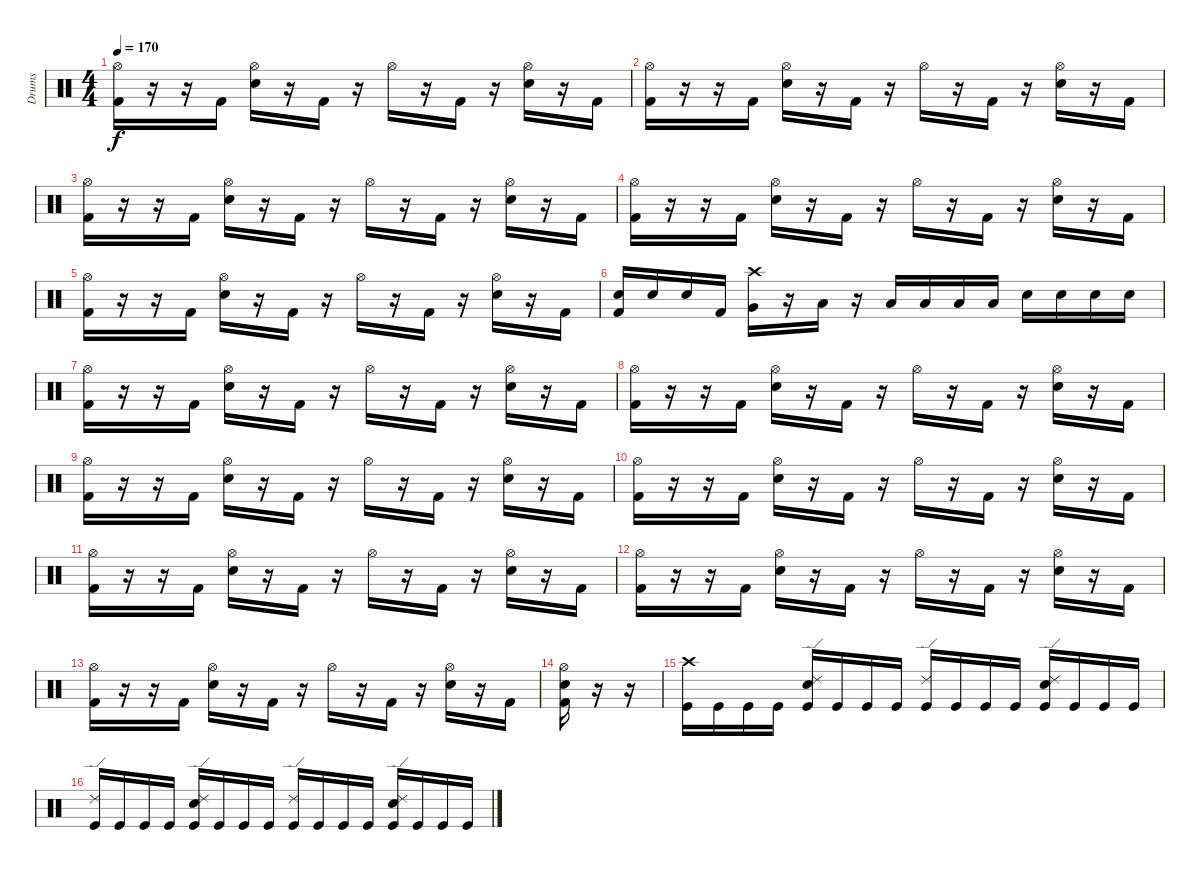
\track ("Drums" "Drums") {instrument percussion}
\staff {score}
\articulation defaults
\ts (4 4)
\tempo 170
\clef neutral
\ks c
("Hi-Hat (open)" "Kick (hit) 2").16{dy f} r.16 r.16 "Kick (hit) 2".16 ("Hi-Hat (open)" "Electric Snare (hit)").16 r.16 "Kick (hit) 2".16 r.16 "Hi-Hat (open)".16 r.16 "Kick (hit) 2".16 r.16 ("Hi-Hat (open)" "Electric Snare (hit)").16 r.16 "Kick (hit) 2".16 |
("Hi-Hat (open)" "Kick (hit) 2").16 r.16 r.16 "Kick (hit) 2".16 ("Hi-Hat (open)" "Electric Snare (hit)").16 r.16 "Kick (hit) 2".16 r.16 "Hi-Hat (open)".16 r.16 "Kick (hit) 2".16 r.16 ("Hi-Hat (open)" "Electric Snare (hit)").16 r.16 "Kick (hit) 2".16 |
("Hi-Hat (open)" "Kick (hit) 2").16 r.16 r.16 "Kick (hit) 2".16 ("Hi-Hat (open)" "Electric Snare (hit)").16 r.16 "Kick (hit) 2".16 r.16 "Hi-Hat (open)".16 r.16 "Kick (hit) 2".16 r.16 ("Hi-Hat (open)" "Electric Snare (hit)").16 r.16 "Kick (hit) 2".16 |
("Hi-Hat (open)" "Kick (hit) 2").16 r.16 r.16 "Kick (hit) 2".16 ("Hi-Hat (open)" "Electric Snare (hit)").16 r.16 "Kick (hit) 2".16 r.16 "Hi-Hat (open)".16 r.16 "Kick (hit) 2".16 r.16 ("Hi-Hat (open)" "Electric Snare (hit)").16 r.16 "Kick (hit) 2".16 |
("Hi-Hat (open)" "Kick (hit) 2").16 r.16 r.16 "Kick (hit) 2".16 ("Hi-Hat (open)" "Electric Snare (hit)").16 r.16 "Kick (hit) 2".16 r.16 "Hi-Hat (open)".16 r.16 "Kick (hit) 2".16 r.16 ("Hi-Hat (open)" "Electric Snare (hit)").16 r.16 "Kick (hit) 2".16 |
("Electric Snare (hit)" "Kick (hit) 2").16 "Electric Snare (hit)".16 "Electric Snare (hit)".16 "Kick (hit) 2".16 ("Crash high (hit)" "Very Low Tom (hit)").16 r.16 "Low Tom (hit)".16 r.16 "Low Tom (hit)".16 "Low Tom (hit)".16 "Low Tom (hit)".16 "Low Tom (hit)".16 "Electric Snare (hit)".16 "Electric Snare (hit)".16 "Electric Snare (hit)".16 "Electric Snare (hit)".16 |
("Hi-Hat (open)" "Kick (hit) 2").16 r.16 r.16 "Kick (hit) 2".16 ("Hi-Hat (open)" "Electric Snare (hit)").16 r.16 "Kick (hit) 2".16 r.16 "Hi-Hat (open)".16 r.16 "Kick (hit) 2".16 r.16 ("Hi-Hat (open)" "Electric Snare (hit)").16 r.16 "Kick (hit) 2".16 |
("Hi-Hat (open)" "Kick (hit) 2").16 r.16 r.16 "Kick (hit) 2".16 ("Hi-Hat (open)" "Electric Snare (hit)").16 r.16 "Kick (hit) 2".16 r.16 "Hi-Hat (open)".16 r.16 "Kick (hit) 2".16 r.16 ("Hi-Hat (open)" "Electric Snare (hit)").16 r.16 "Kick (hit) 2".16 |
("Hi-Hat (open)" "Kick (hit) 2").16 r.16 r.16 "Kick (hit) 2".16 ("Hi-Hat (open)" "Electric Snare (hit)").16 r.16 "Kick (hit) 2".16 r.16 "Hi-Hat (open)".16 r.16 "Kick (hit) 2".16 r.16 ("Hi-Hat (open)" "Electric Snare (hit)").16 r.16 "Kick (hit) 2".16 |
("Hi-Hat (open)" "Kick (hit) 2").16 r.16 r.16 "Kick (hit) 2".16 ("Hi-Hat (open)" "Electric Snare (hit)").16 r.16 "Kick (hit) 2".16 r.16 "Hi-Hat (open)".16 r.16 "Kick (hit) 2".16 r.16 ("Hi-Hat (open)" "Electric Snare (hit)").16 r.16 "Kick (hit) 2".16 |
("Hi-Hat (open)" "Kick (hit) 2").16 r.16 r.16 "Kick (hit) 2".16 ("Hi-Hat (open)" "Electric Snare (hit)").16 r.16 "Kick (hit) 2".16 r.16 "Hi-Hat (open)".16 r.16 "Kick (hit) 2".16 r.16 ("Hi-Hat (open)" "Electric Snare (hit)").16 r.16 "Kick (hit) 2".16 |
("Hi-Hat (open)" "Kick (hit) 2").16 r.16 r.16 "Kick (hit) 2".16 ("Hi-Hat (open)" "Electric Snare (hit)").16 r.16 "Kick (hit) 2".16 r.16 "Hi-Hat (open)".16 r.16 "Kick (hit) 2".16 r.16 ("Hi-Hat (open)" "Electric Snare (hit)").16 r.16 "Kick (hit) 2".16 |
("Hi-Hat (open)" "Kick (hit) 2").16 r.16 r.16 "Kick (hit) 2".16 ("Hi-Hat (open)" "Electric Snare (hit)").16 r.16 "Kick (hit) 2".16 r.16 "Hi-Hat (open)".16 r.16 "Kick (hit) 2".16 r.16 ("Hi-Hat (open)" "Electric Snare (hit)").16 r.16 "Kick (hit) 2".16 |
("Hi-Hat (open)" "Electric Snare (hit)" "Kick (hit) 2").16 r.16 r.16 |
("Crash high (hit)" "Kick (hit)").16 "Kick (hit)".16 "Kick (hit)".16 "Kick (hit)".16 ("Ride (edge) 2" "Electric Snare (hit)" "Kick (hit)").16 "Kick (hit)".16 "Kick (hit)".16 "Kick (hit)".16 ("Ride (edge) 2" "Kick (hit)").16 "Kick (hit)".16 "Kick (hit)".16 "Kick (hit)".16 ("Ride (edge) 2" "Electric Snare (hit)" "Kick (hit)").16 "Kick (hit)".16 "Kick (hit)".16 "Kick (hit)".16 |
("Ride (edge) 2" "Kick (hit)").16 "Kick (hit)".16 "Kick (hit)".16 "Kick (hit)".16 ("Ride (edge) 2" "Electric Snare (hit)" "Kick (hit)").16 "Kick (hit)".16 "Kick (hit)".16 "Kick (hit)".16 ("Ride (edge) 2" "Kick (hit)").16 "Kick (hit)".16 "Kick (hit)".16 "Kick (hit)".16 ("Ride (edge) 2" "Electric Snare (hit)" "Kick (hit)").16 "Kick (hit)".16 "Kick (hit)".16 "Kick (hit)".16
